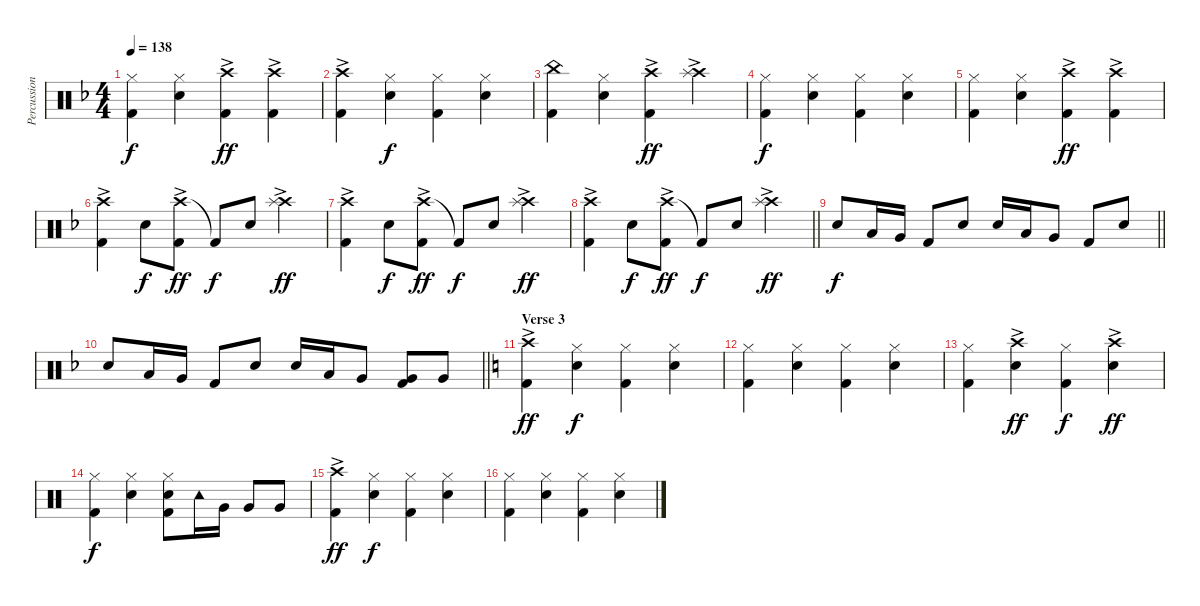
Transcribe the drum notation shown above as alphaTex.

\track ("Percussion" "Percussion") {instrument percussion}
\staff {score}
\articulation defaults
\ts (4 4)
\tempo 138
\clef neutral
\ks f
("Hi-Hat (closed)" "Kick (hit) 2").4{dy f} ("Hi-Hat (closed)" "Snare (hit) 2").4 ("Crash high (hit)"{ac} "Kick (hit) 2").4{dy ff} ("Crash high (hit)" "Kick (hit) 2"{ac}).4 |
("Crash high (hit)"{ac} "Kick (hit) 2").4 ("Hi-Hat (closed)" "Snare (hit) 2").4{dy f} ("Hi-Hat (closed)" "Kick (hit) 2").4 ("Hi-Hat (closed)" "Snare (hit) 2").4 |
("China (hit)" "Kick (hit) 2").4 ("Hi-Hat (closed)" "Snare (hit) 2").4 ("Crash high (hit)"{ac} "Kick (hit) 2"{ac}).4{dy ff} ("Crash high (hit)"{ac} "Splash (hit)"{ac}).4 |
("Hi-Hat (closed)" "Kick (hit) 2").4{dy f} ("Hi-Hat (closed)" "Snare (hit) 2").4 ("Hi-Hat (closed)" "Kick (hit) 2").4 ("Hi-Hat (closed)" "Snare (hit) 2").4 |
("Hi-Hat (closed)" "Kick (hit) 2").4 ("Hi-Hat (closed)" "Snare (hit) 2").4 ("Crash high (hit)"{ac} "Kick (hit) 2").4{dy ff} ("Crash high (hit)" "Kick (hit) 2"{ac}).4 |
("Crash high (hit)"{ac} "Kick (hit) 2").4 "Snare (hit) 2".8{dy f} ("Crash high (hit)"{ac} "Kick (hit) 2").8{dy ff} "Kick (hit) 2"{t}.8{dy f} "Snare (hit) 2".8 ("Crash high (hit)"{ac} "Splash (hit)"{ac}).4{dy ff} |
("Crash high (hit)"{ac} "Kick (hit) 2").4 "Snare (hit) 2".8{dy f} ("Crash high (hit)"{ac} "Kick (hit) 2").8{dy ff} "Kick (hit) 2"{t}.8{dy f} "Snare (hit) 2".8 ("Crash high (hit)"{ac} "Splash (hit)"{ac}).4{dy ff} |
\barLineRight lightlight
("Crash high (hit)"{ac} "Kick (hit) 2").4 "Snare (hit) 2".8{dy f} ("Crash high (hit)"{ac} "Kick (hit) 2").8{dy ff} "Kick (hit) 2"{t}.8{dy f} "Snare (hit) 2".8 ("Crash high (hit)"{ac} "Splash (hit)"{ac}).4{dy ff} |
\barLineRight lightlight "Snare (hit) 2".8{dy f} "Low Tom (hit)".16 "Very Low Tom (hit)".16 "Kick (hit) 2".8 "Snare (hit) 2".8 "Snare (hit) 2".16 "Low Tom (hit)".16 "Very Low Tom (hit)".8{beam split} "Kick (hit) 2".8{beam merge} "Snare (hit) 2".8
|
\barLineRight lightlight "Snare (hit) 2".8 "Low Tom (hit)".16 "Very Low Tom (hit)".16 "Kick (hit) 2".8 "Snare (hit) 2".8 "Snare (hit) 2".16 "Low Tom (hit)".16 "Very Low Tom (hit)".8{beam split}
("Very Low Tom (hit)" "Kick (hit) 2").8{beam merge} "Very Low Tom (hit)".8 |
\section ("" "Verse 3")
\ks c
("Crash high (hit)"{ac} "Kick (hit) 2").4{dy ff} ("Hi-Hat (closed)" "Snare (hit) 2").4{dy f} ("Hi-Hat (closed)" "Kick (hit) 2").4 ("Hi-Hat (closed)" "Snare (hit) 2").4 |
("Hi-Hat (closed)" "Kick (hit) 2").4 ("Hi-Hat (closed)" "Snare (hit) 2").4 ("Hi-Hat (closed)" "Kick (hit) 2").4 ("Hi-Hat (closed)" "Snare (hit) 2").4 |
("Hi-Hat (closed)" "Kick (hit) 2").4 ("Crash high (hit)"{ac} "Snare (hit) 2"{ac}).4{dy ff} ("Hi-Hat (closed)" "Kick (hit) 2").4{dy f} ("Crash high (hit)"{ac} "Snare (hit) 2"{ac}).4{dy ff} |
("Hi-Hat (closed)" "Kick (hit) 2").4{dy f} ("Hi-Hat (closed)" "Snare (hit) 2").4 ("Hi-Hat (closed)" "Snare (hit) 2" "Kick (hit) 2").8 "Tambourine (hit)".16 "Very Low Tom (hit)".16 "Very Low Tom (hit)".8 "Very Low Tom (hit)".8 |
("Crash high (hit)"{ac} "Kick (hit) 2").4{dy ff} ("Hi-Hat (closed)" "Snare (hit) 2").4{dy f} ("Hi-Hat (closed)" "Kick (hit) 2").4 ("Hi-Hat (closed)" "Snare (hit) 2").4 |
("Hi-Hat (closed)" "Kick (hit) 2").4 ("Hi-Hat (closed)" "Snare (hit) 2").4 ("Hi-Hat (closed)" "Kick (hit) 2").4 ("Hi-Hat (closed)" "Snare (hit) 2").4
